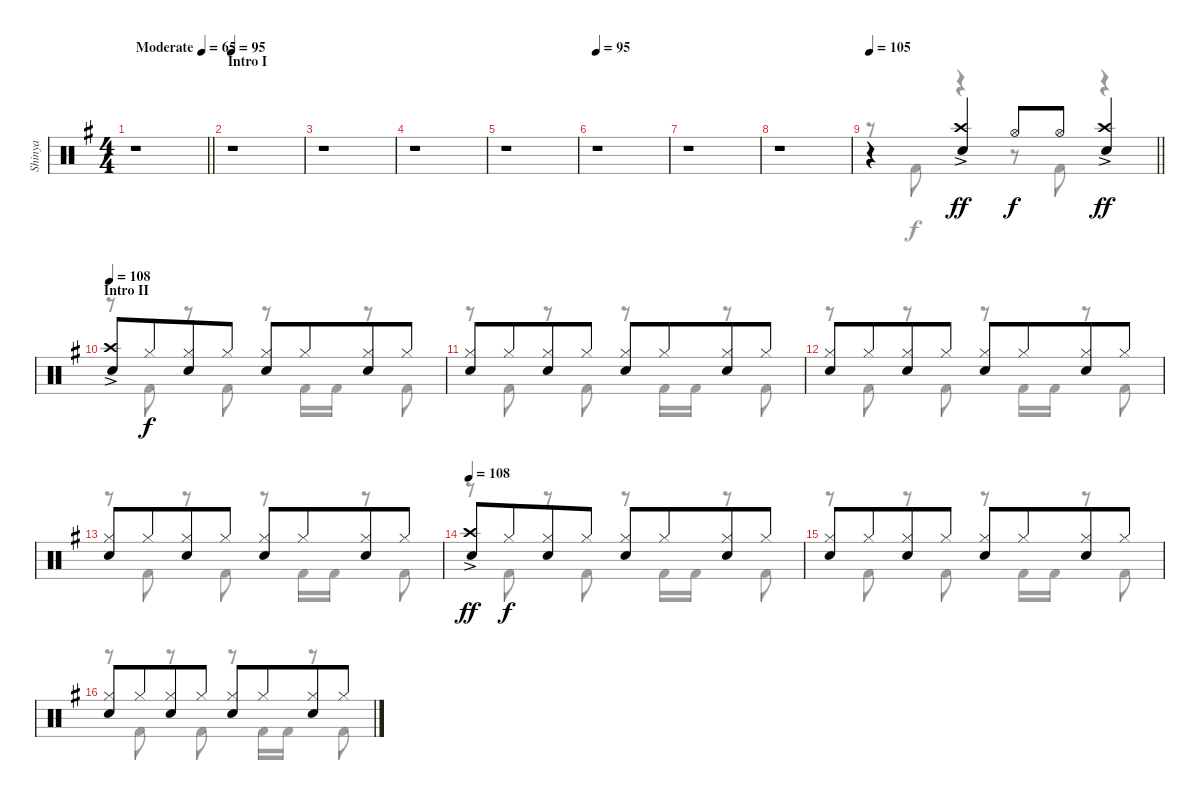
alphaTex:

\track ("Shinya" "Shinya") {instrument percussion}
\staff {score}
\articulation defaults
\voice
\ts (4 4)
\tempo (65 "Moderate")
\clef neutral
\barLineRight lightlight
\ks eminor
r.1{dy ff} |
\section ("" "Intro I")
\tempo 95
r.1 |
r.1 |
r.1 |
r.1 |
\tempo 95
r.1 |
r.1 |
r.1 |
\tempo 105
\barLineRight lightlight
r.4 ("Crash high (hit)"{ac} "Snare (hit) 2").4 "Hi-Hat (open)".8{dy f} "Hi-Hat (open)".8 ("Crash high (hit)"{ac} "Snare (hit) 2").4{dy ff} |
\section ("" "Intro II")
\tempo 108
("Crash high (hit)"{ac} "Snare (hit) 2").8 "Hi-Hat (closed)".8{dy f beam merge} ("Hi-Hat (closed)" "Snare (hit) 2").8 "Hi-Hat (closed)".8 ("Hi-Hat (closed)" "Snare (hit) 2").8 "Hi-Hat (closed)".8{beam merge} ("Hi-Hat (closed)" "Snare (hit) 2").8 "Hi-Hat (closed)".8 |
("Hi-Hat (closed)" "Snare (hit) 2").8 "Hi-Hat (closed)".8{beam merge} ("Hi-Hat (closed)" "Snare (hit) 2").8 "Hi-Hat (closed)".8 ("Hi-Hat (closed)" "Snare (hit) 2").8 "Hi-Hat (closed)".8{beam merge} ("Hi-Hat (closed)" "Snare (hit) 2").8 "Hi-Hat (closed)".8 |
("Hi-Hat (closed)" "Snare (hit) 2").8 "Hi-Hat (closed)".8{beam merge} ("Hi-Hat (closed)" "Snare (hit) 2").8 "Hi-Hat (closed)".8 ("Hi-Hat (closed)" "Snare (hit) 2").8 "Hi-Hat (closed)".8{beam merge} ("Hi-Hat (closed)" "Snare (hit) 2").8 "Hi-Hat (closed)".8 |
("Hi-Hat (closed)" "Snare (hit) 2").8 "Hi-Hat (closed)".8{beam merge} ("Hi-Hat (closed)" "Snare (hit) 2").8 "Hi-Hat (closed)".8 ("Hi-Hat (closed)" "Snare (hit) 2").8 "Hi-Hat (closed)".8{beam merge} ("Hi-Hat (closed)" "Snare (hit) 2").8 "Hi-Hat (closed)".8 |
\tempo 108
("Crash high (hit)"{ac} "Snare (hit) 2").8{dy ff} "Hi-Hat (closed)".8{dy f beam merge} ("Hi-Hat (closed)" "Snare (hit) 2").8 "Hi-Hat (closed)".8 ("Hi-Hat (closed)" "Snare (hit) 2").8 "Hi-Hat (closed)".8{beam merge} ("Hi-Hat (closed)" "Snare (hit) 2").8 "Hi-Hat (closed)".8 |
("Hi-Hat (closed)" "Snare (hit) 2").8 "Hi-Hat (closed)".8{beam merge} ("Hi-Hat (closed)" "Snare (hit) 2").8 "Hi-Hat (closed)".8 ("Hi-Hat (closed)" "Snare (hit) 2").8 "Hi-Hat (closed)".8{beam merge} ("Hi-Hat (closed)" "Snare (hit) 2").8 "Hi-Hat (closed)".8 |
("Hi-Hat (closed)" "Snare (hit) 2").8 "Hi-Hat (closed)".8{beam merge} ("Hi-Hat (closed)" "Snare (hit) 2").8 "Hi-Hat (closed)".8 ("Hi-Hat (closed)" "Snare (hit) 2").8 "Hi-Hat (closed)".8{beam merge} ("Hi-Hat (closed)" "Snare (hit) 2").8 "Hi-Hat (closed)".8
\voice
\clef neutral
\ottava regular
\simile none
\barLineRight lightlight
\ks eminor
r.1{dy f} |
r.1 |
r.1 |
r.1 |
r.1 |
r.1 |
r.1 |
r.1 |
\barLineRight lightlight
r.8 "Kick (hit) 2".8 r.4 r.8 "Kick (hit) 2".8 r.4 |
r.8 "Kick (hit) 2".8 r.8 "Kick (hit) 2".8 r.8 "Kick (hit) 2".16 "Kick (hit) 2".16 r.8 "Kick (hit) 2".8 |
r.8 "Kick (hit) 2".8 r.8 "Kick (hit) 2".8 r.8 "Kick (hit) 2".16 "Kick (hit) 2".16 r.8 "Kick (hit) 2".8 |
r.8 "Kick (hit) 2".8 r.8 "Kick (hit) 2".8 r.8 "Kick (hit) 2".16 "Kick (hit) 2".16 r.8 "Kick (hit) 2".8 |
r.8 "Kick (hit) 2".8 r.8 "Kick (hit) 2".8 r.8 "Kick (hit) 2".16 "Kick (hit) 2".16 r.8 "Kick (hit) 2".8 |
r.8 "Kick (hit) 2".8 r.8 "Kick (hit) 2".8 r.8 "Kick (hit) 2".16 "Kick (hit) 2".16 r.8 "Kick (hit) 2".8 |
r.8 "Kick (hit) 2".8 r.8 "Kick (hit) 2".8 r.8 "Kick (hit) 2".16 "Kick (hit) 2".16 r.8 "Kick (hit) 2".8 |
r.8 "Kick (hit) 2".8 r.8 "Kick (hit) 2".8 r.8 "Kick (hit) 2".16 "Kick (hit) 2".16 r.8 "Kick (hit) 2".8
